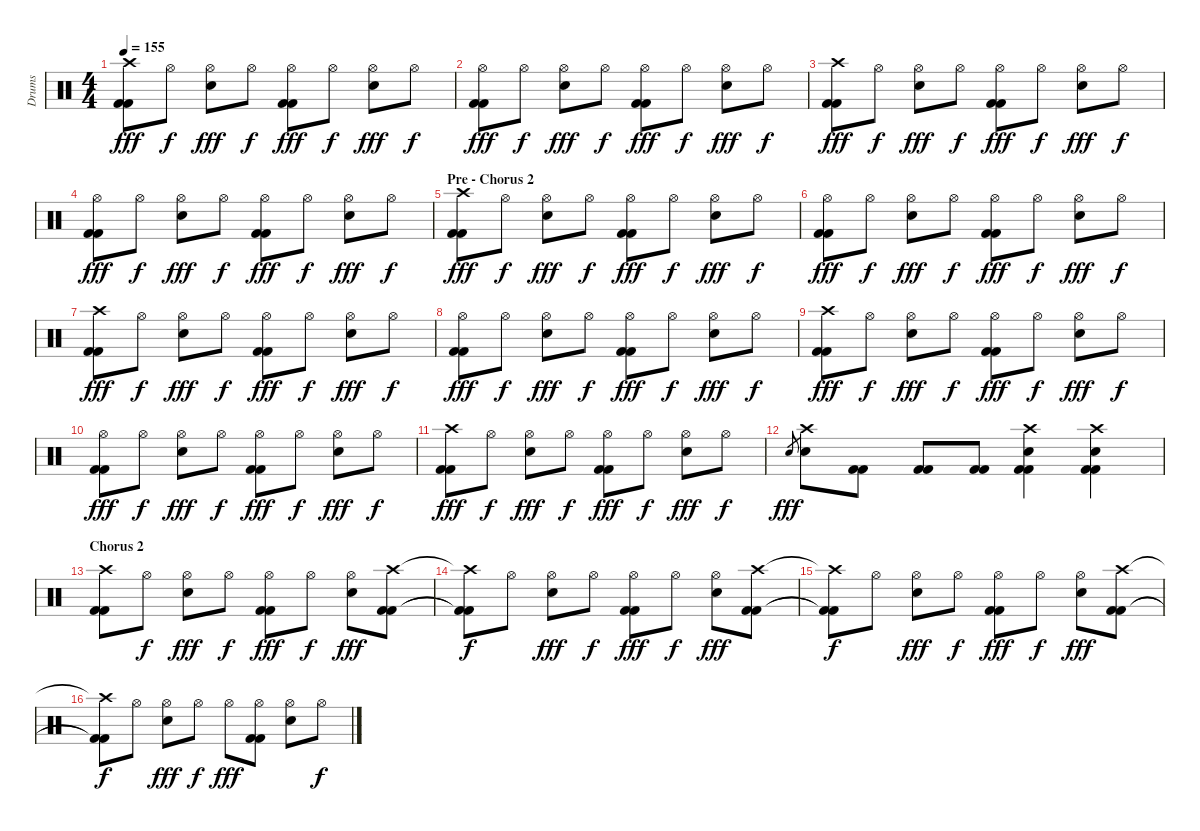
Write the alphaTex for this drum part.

\track ("Drums" "Drums") {instrument percussion}
\staff {score}
\articulation defaults
\ts (4 4)
\tempo 155
\clef neutral
\ks c
("Crash high (hit)" "Kick (hit) 2" "Kick (hit) 2").8{dy fff} "Hi-Hat (open)".8{dy f} ("Hi-Hat (open)" "Snare (hit) 2").8{dy fff} "Hi-Hat (open)".8{dy f} ("Hi-Hat (open)" "Kick (hit) 2" "Kick (hit) 2").8{dy fff} "Hi-Hat (open)".8{dy f} ("Hi-Hat (open)" "Snare (hit) 2").8{dy fff} "Hi-Hat (open)".8{dy f} |
("Hi-Hat (open)" "Kick (hit) 2" "Kick (hit) 2").8{dy fff} "Hi-Hat (open)".8{dy f} ("Hi-Hat (open)" "Snare (hit) 2").8{dy fff} "Hi-Hat (open)".8{dy f} ("Hi-Hat (open)" "Kick (hit) 2" "Kick (hit) 2").8{dy fff} "Hi-Hat (open)".8{dy f} ("Hi-Hat (open)" "Snare (hit) 2").8{dy fff} "Hi-Hat (open)".8{dy f} |
("Crash high (hit)" "Kick (hit) 2" "Kick (hit) 2").8{dy fff} "Hi-Hat (open)".8{dy f} ("Hi-Hat (open)" "Snare (hit) 2").8{dy fff} "Hi-Hat (open)".8{dy f} ("Hi-Hat (open)" "Kick (hit) 2" "Kick (hit) 2").8{dy fff} "Hi-Hat (open)".8{dy f} ("Hi-Hat (open)" "Snare (hit) 2").8{dy fff} "Hi-Hat (open)".8{dy f} |
("Hi-Hat (open)" "Kick (hit) 2" "Kick (hit) 2").8{dy fff} "Hi-Hat (open)".8{dy f} ("Hi-Hat (open)" "Snare (hit) 2").8{dy fff} "Hi-Hat (open)".8{dy f} ("Hi-Hat (open)" "Kick (hit) 2" "Kick (hit) 2").8{dy fff} "Hi-Hat (open)".8{dy f} ("Hi-Hat (open)" "Snare (hit) 2").8{dy fff} "Hi-Hat (open)".8{dy f} |
\section ("" "Pre - Chorus 2")
("Crash high (hit)" "Kick (hit) 2" "Kick (hit) 2").8{dy fff} "Hi-Hat (open)".8{dy f} ("Hi-Hat (open)" "Snare (hit) 2").8{dy fff} "Hi-Hat (open)".8{dy f} ("Hi-Hat (open)" "Kick (hit) 2" "Kick (hit) 2").8{dy fff} "Hi-Hat (open)".8{dy f} ("Hi-Hat (open)" "Snare (hit) 2").8{dy fff} "Hi-Hat (open)".8{dy f} |
("Hi-Hat (open)" "Kick (hit) 2" "Kick (hit) 2").8{dy fff} "Hi-Hat (open)".8{dy f} ("Hi-Hat (open)" "Snare (hit) 2").8{dy fff} "Hi-Hat (open)".8{dy f} ("Hi-Hat (open)" "Kick (hit) 2" "Kick (hit) 2").8{dy fff} "Hi-Hat (open)".8{dy f} ("Hi-Hat (open)" "Snare (hit) 2").8{dy fff} "Hi-Hat (open)".8{dy f} |
("Crash high (hit)" "Kick (hit) 2" "Kick (hit) 2").8{dy fff} "Hi-Hat (open)".8{dy f} ("Hi-Hat (open)" "Snare (hit) 2").8{dy fff} "Hi-Hat (open)".8{dy f} ("Hi-Hat (open)" "Kick (hit) 2" "Kick (hit) 2").8{dy fff} "Hi-Hat (open)".8{dy f} ("Hi-Hat (open)" "Snare (hit) 2").8{dy fff} "Hi-Hat (open)".8{dy f} |
("Hi-Hat (open)" "Kick (hit) 2" "Kick (hit) 2").8{dy fff} "Hi-Hat (open)".8{dy f} ("Hi-Hat (open)" "Snare (hit) 2").8{dy fff} "Hi-Hat (open)".8{dy f} ("Hi-Hat (open)" "Kick (hit) 2" "Kick (hit) 2").8{dy fff} "Hi-Hat (open)".8{dy f} ("Hi-Hat (open)" "Snare (hit) 2").8{dy fff} "Hi-Hat (open)".8{dy f} |
("Crash high (hit)" "Kick (hit) 2" "Kick (hit) 2").8{dy fff} "Hi-Hat (open)".8{dy f} ("Hi-Hat (open)" "Snare (hit) 2").8{dy fff} "Hi-Hat (open)".8{dy f} ("Hi-Hat (open)" "Kick (hit) 2" "Kick (hit) 2").8{dy fff} "Hi-Hat (open)".8{dy f} ("Hi-Hat (open)" "Snare (hit) 2").8{dy fff} "Hi-Hat (open)".8{dy f} |
("Hi-Hat (open)" "Kick (hit) 2" "Kick (hit) 2").8{dy fff} "Hi-Hat (open)".8{dy f} ("Hi-Hat (open)" "Snare (hit) 2").8{dy fff} "Hi-Hat (open)".8{dy f} ("Hi-Hat (open)" "Kick (hit) 2" "Kick (hit) 2").8{dy fff} "Hi-Hat (open)".8{dy f} ("Hi-Hat (open)" "Snare (hit) 2").8{dy fff} "Hi-Hat (open)".8{dy f} |
("Crash high (hit)" "Kick (hit) 2" "Kick (hit) 2").8{dy fff} "Hi-Hat (open)".8{dy f} ("Hi-Hat (open)" "Snare (hit) 2").8{dy fff} "Hi-Hat (open)".8{dy f} ("Hi-Hat (open)" "Kick (hit) 2" "Kick (hit) 2").8{dy fff} "Hi-Hat (open)".8{dy f} ("Hi-Hat (open)" "Snare (hit) 2").8{dy fff} "Hi-Hat (open)".8{dy f} |
"Snare (hit) 2".8{gr dy fff} ("Crash high (hit)" "Snare (hit) 2").8 ("Kick (hit) 2" "Kick (hit) 2").8 ("Kick (hit) 2" "Kick (hit) 2").8 ("Kick (hit) 2" "Kick (hit) 2").8 ("Crash high (hit)" "Snare (hit) 2" "Kick (hit) 2" "Kick (hit) 2").4 ("Crash high (hit)" "Snare (hit) 2" "Kick (hit) 2" "Kick (hit) 2").4 |
\section ("" "Chorus 2")
("Crash high (hit)" "Kick (hit) 2" "Kick (hit) 2").8 "Hi-Hat (open)".8{dy f} ("Hi-Hat (open)" "Snare (hit) 2").8{dy fff} "Hi-Hat (open)".8{dy f} ("Hi-Hat (open)" "Kick (hit) 2" "Kick (hit) 2").8{dy fff} "Hi-Hat (open)".8{dy f} ("Hi-Hat (open)" "Snare (hit) 2").8{dy fff} ("Crash high (hit)" "Kick (hit) 2" "Kick (hit) 2").8 |
("Crash high (hit)"{t} "Kick (hit) 2"{t} "Kick (hit) 2"{t}).8{dy f} "Hi-Hat (open)".8 ("Hi-Hat (open)" "Snare (hit) 2").8{dy fff} "Hi-Hat (open)".8{dy f} ("Hi-Hat (open)" "Kick (hit) 2" "Kick (hit) 2").8{dy fff} "Hi-Hat (open)".8{dy f} ("Hi-Hat (open)" "Snare (hit) 2").8{dy fff} ("Crash high (hit)" "Kick (hit) 2" "Kick (hit) 2").8 |
("Crash high (hit)"{t} "Kick (hit) 2"{t} "Kick (hit) 2"{t}).8{dy f} "Hi-Hat (open)".8 ("Hi-Hat (open)" "Snare (hit) 2").8{dy fff} "Hi-Hat (open)".8{dy f} ("Hi-Hat (open)" "Kick (hit) 2" "Kick (hit) 2").8{dy fff} "Hi-Hat (open)".8{dy f} ("Hi-Hat (open)" "Snare (hit) 2").8{dy fff} ("Crash high (hit)" "Kick (hit) 2" "Kick (hit) 2").8 |
("Crash high (hit)"{t} "Kick (hit) 2"{t} "Kick (hit) 2"{t}).8{dy f} "Hi-Hat (open)".8 ("Hi-Hat (open)" "Snare (hit) 2").8{dy fff} "Hi-Hat (open)".8{dy f} "Hi-Hat (open)".8{dy fff} ("Hi-Hat (open)" "Kick (hit) 2" "Kick (hit) 2").8 ("Hi-Hat (open)" "Snare (hit) 2").8 "Hi-Hat (open)".8{dy f}
